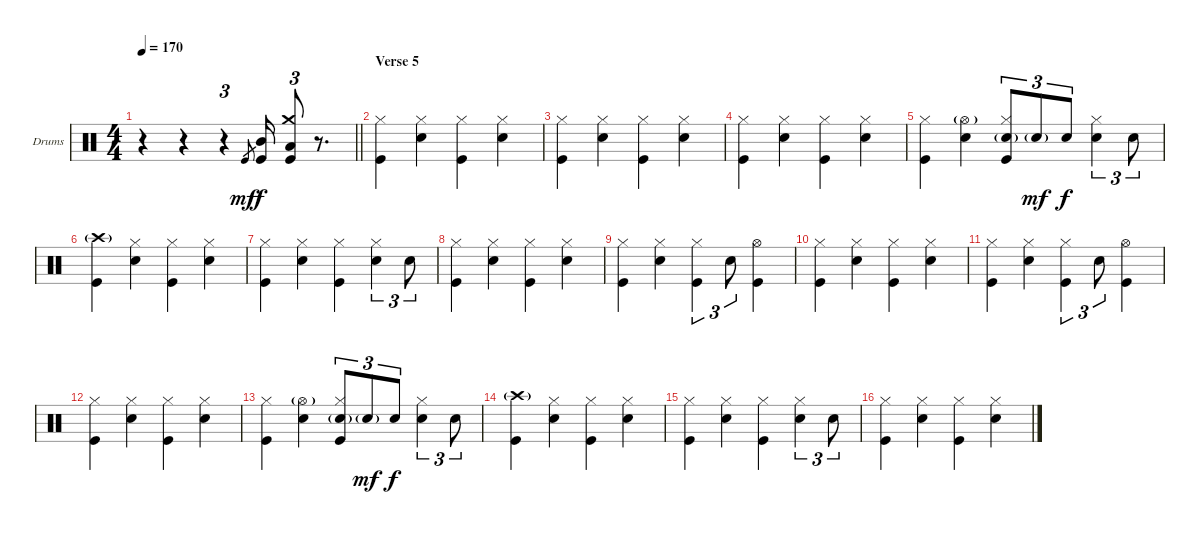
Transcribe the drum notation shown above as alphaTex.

\bracketExtendMode groupsimilarinstruments
\firstSystemTrackNameOrientation horizontal
\otherSystemsTrackNameOrientation horizontal
\track ("Dave Grohl [Drumms]" "Drums") {instrument percussion}
\staff {score}
\articulation defaults
\ts (4 4)
\tempo 170
\clef neutral
\barLineRight lightlight
\ks c
r.4{dy f} r.4 r.4{tu (3 2)} "Kick (hit)".8{gr dy mf} ("Mid Tom (hit)" "Kick (hit)").16{dy f} ("Crash medium (hit)" "Low Tom (hit)" "Kick (hit)").8{tu (3 2)} r.8{d} |
\section ("" "Verse 5")
("Hi-Hat (closed)" "Kick (hit)").4 ("Hi-Hat (closed)" "Snare (hit) 2").4 ("Hi-Hat (closed)" "Kick (hit)").4 ("Hi-Hat (closed)" "Snare (hit) 2").4 |
("Hi-Hat (closed)" "Kick (hit)").4 ("Hi-Hat (closed)" "Snare (hit) 2").4 ("Hi-Hat (closed)" "Kick (hit)").4 ("Hi-Hat (closed)" "Snare (hit) 2").4 |
("Hi-Hat (closed)" "Kick (hit)").4 ("Hi-Hat (closed)" "Snare (hit) 2").4 ("Hi-Hat (closed)" "Kick (hit)").4 ("Hi-Hat (closed)" "Snare (hit) 2").4 |
("Hi-Hat (closed)" "Kick (hit)").4 ("Hi-Hat (open)"{g} "Snare (hit) 2").4 ("Hi-Hat (closed)" "Snare (hit) 2"{g} "Kick (hit)").8{tu (3 2)} "Snare (hit) 2"{g}.8{tu (3 2) dy mf} "Snare (hit) 2".8{tu (3 2) dy f} ("Hi-Hat (closed)" "Snare (hit) 2").4{tu (3 2)} "Snare (hit) 2".8{tu (3 2)} |
("Crash high (hit)"{g} "Kick (hit)").4 ("Hi-Hat (closed)" "Snare (hit) 2").4 ("Hi-Hat (closed)" "Kick (hit)").4 ("Hi-Hat (closed)" "Snare (hit) 2").4 |
("Hi-Hat (closed)" "Kick (hit)").4 ("Hi-Hat (closed)" "Snare (hit) 2").4 ("Hi-Hat (closed)" "Kick (hit)").4 ("Hi-Hat (closed)" "Snare (hit) 2").4{tu (3 2)} "Snare (hit) 2".8{tu (3 2)} |
("Hi-Hat (closed)" "Kick (hit)").4 ("Hi-Hat (closed)" "Snare (hit) 2").4 ("Hi-Hat (closed)" "Kick (hit)").4 ("Hi-Hat (closed)" "Snare (hit) 2").4 |
("Hi-Hat (closed)" "Kick (hit)").4 ("Hi-Hat (closed)" "Snare (hit) 2").4 ("Hi-Hat (closed)" "Kick (hit)").4{tu (3 2)} "Snare (hit) 2".8{tu (3 2)} ("Hi-Hat (open)" "Kick (hit)").4 |
("Hi-Hat (closed)" "Kick (hit)").4 ("Hi-Hat (closed)" "Snare (hit) 2").4 ("Hi-Hat (closed)" "Kick (hit)").4 ("Hi-Hat (closed)" "Snare (hit) 2").4 |
("Hi-Hat (closed)" "Kick (hit)").4 ("Hi-Hat (closed)" "Snare (hit) 2").4 ("Hi-Hat (closed)" "Kick (hit)").4{tu (3 2)} "Snare (hit) 2".8{tu (3 2)} ("Hi-Hat (open)" "Kick (hit)").4 |
("Hi-Hat (closed)" "Kick (hit)").4 ("Hi-Hat (closed)" "Snare (hit) 2").4 ("Hi-Hat (closed)" "Kick (hit)").4 ("Hi-Hat (closed)" "Snare (hit) 2").4 |
("Hi-Hat (closed)" "Kick (hit)").4 ("Hi-Hat (open)"{g} "Snare (hit) 2").4 ("Hi-Hat (closed)" "Snare (hit) 2"{g} "Kick (hit)").8{tu (3 2)} "Snare (hit) 2"{g}.8{tu (3 2) dy mf} "Snare (hit) 2".8{tu (3 2) dy f} ("Hi-Hat (closed)" "Snare (hit) 2").4{tu (3 2)} "Snare (hit) 2".8{tu (3 2)} |
("Crash high (hit)"{g} "Kick (hit)").4 ("Hi-Hat (closed)" "Snare (hit) 2").4 ("Hi-Hat (closed)" "Kick (hit)").4 ("Hi-Hat (closed)" "Snare (hit) 2").4 |
("Hi-Hat (closed)" "Kick (hit)").4 ("Hi-Hat (closed)" "Snare (hit) 2").4 ("Hi-Hat (closed)" "Kick (hit)").4 ("Hi-Hat (closed)" "Snare (hit) 2").4{tu (3 2)} "Snare (hit) 2".8{tu (3 2)} |
("Hi-Hat (closed)" "Kick (hit)").4 ("Hi-Hat (closed)" "Snare (hit) 2").4 ("Hi-Hat (closed)" "Kick (hit)").4 ("Hi-Hat (closed)" "Snare (hit) 2").4
